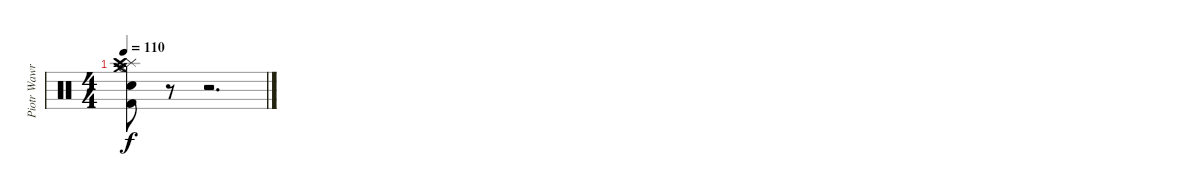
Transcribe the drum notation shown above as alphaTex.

\track ("Piotr Wawrzeniuk" "Piotr Wawr") {instrument percussion}
\staff {score}
\articulation defaults
\ts (4 4)
\tempo 110
\clef neutral
\ks c
("Splash (hit)" "Crash medium (hit)" "Crash high (hit)" "Hi-Hat (open)" "Electric Snare (hit)" "Kick (hit) 2").8{dy f} r.8 r.2{d}
